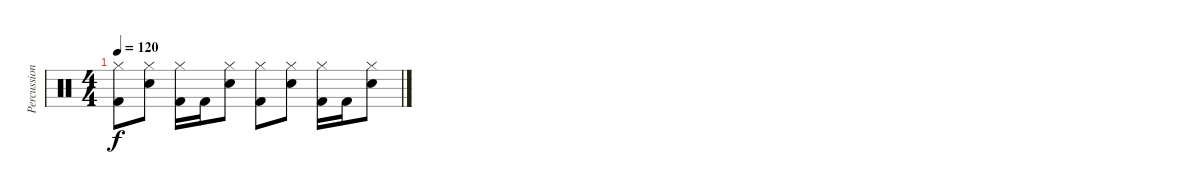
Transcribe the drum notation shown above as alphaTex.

\track ("Percussions" "Percussion") {instrument percussion}
\staff {score}
\articulation defaults
\ts (4 4)
\tempo 120
\clef neutral
\ks c
("Hi-Hat (closed)" "Kick (hit) 2").8{dy f} ("Hi-Hat (closed)" "Snare (hit) 2").8 ("Hi-Hat (closed)" "Kick (hit) 2").16 "Kick (hit) 2".16 ("Hi-Hat (closed)" "Snare (hit) 2").8 ("Hi-Hat (closed)" "Kick (hit) 2").8 ("Hi-Hat (closed)" "Snare (hit) 2").8 ("Hi-Hat (closed)" "Kick (hit) 2").16 "Kick (hit) 2".16 ("Hi-Hat (closed)" "Snare (hit) 2").8
